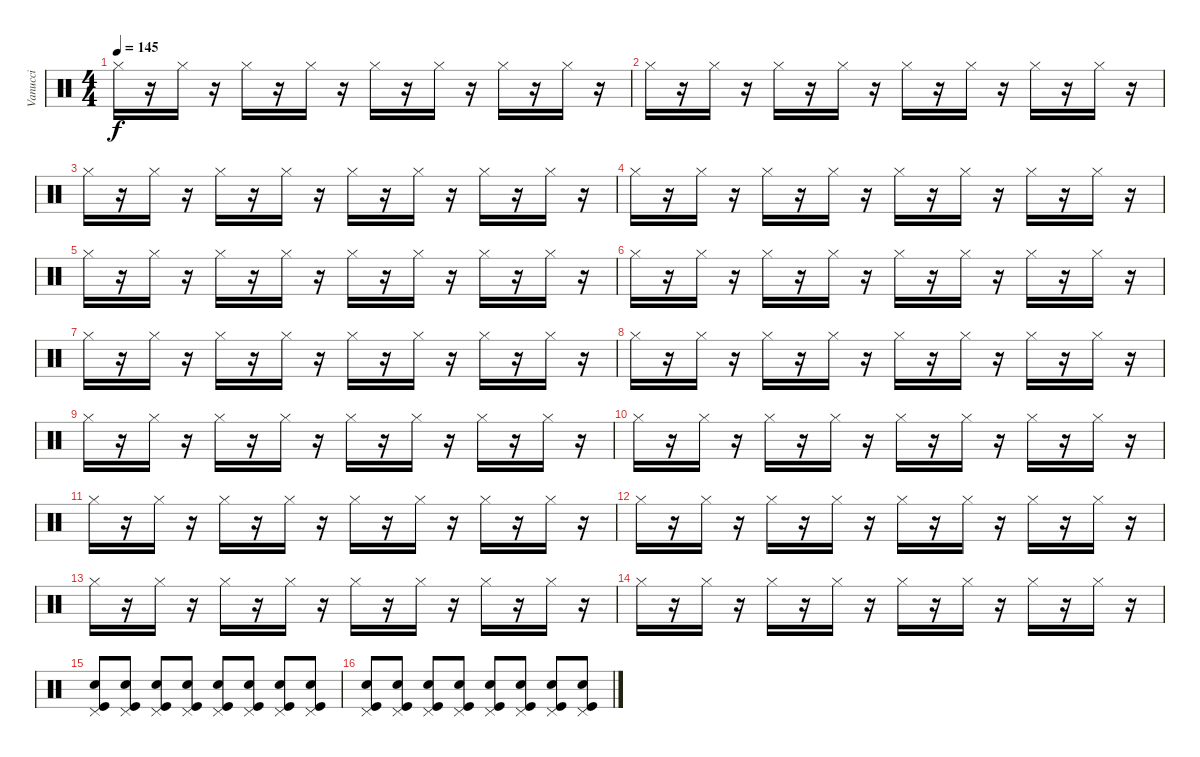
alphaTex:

\track ("Vanucci" "Vanucci") {instrument percussion}
\staff {score}
\articulation defaults
\ts (4 4)
\tempo 145
\clef neutral
\ks c "Hi-Hat (closed)".16{dy f}
r.16 "Hi-Hat (closed)".16 r.16 "Hi-Hat (closed)".16 r.16 "Hi-Hat (closed)".16 r.16 "Hi-Hat (closed)".16 r.16 "Hi-Hat (closed)".16 r.16 "Hi-Hat (closed)".16 r.16 "Hi-Hat (closed)".16 r.16 |
"Hi-Hat (closed)".16 r.16 "Hi-Hat (closed)".16 r.16 "Hi-Hat (closed)".16 r.16 "Hi-Hat (closed)".16 r.16 "Hi-Hat (closed)".16 r.16 "Hi-Hat (closed)".16 r.16 "Hi-Hat (closed)".16 r.16 "Hi-Hat (closed)".16 r.16 |
"Hi-Hat (closed)".16 r.16 "Hi-Hat (closed)".16 r.16 "Hi-Hat (closed)".16 r.16 "Hi-Hat (closed)".16 r.16 "Hi-Hat (closed)".16 r.16 "Hi-Hat (closed)".16 r.16 "Hi-Hat (closed)".16 r.16 "Hi-Hat (closed)".16 r.16 |
"Hi-Hat (closed)".16 r.16 "Hi-Hat (closed)".16 r.16 "Hi-Hat (closed)".16 r.16 "Hi-Hat (closed)".16 r.16 "Hi-Hat (closed)".16 r.16 "Hi-Hat (closed)".16 r.16 "Hi-Hat (closed)".16 r.16 "Hi-Hat (closed)".16 r.16 |
"Hi-Hat (closed)".16 r.16 "Hi-Hat (closed)".16 r.16 "Hi-Hat (closed)".16 r.16 "Hi-Hat (closed)".16 r.16 "Hi-Hat (closed)".16 r.16 "Hi-Hat (closed)".16 r.16 "Hi-Hat (closed)".16 r.16 "Hi-Hat (closed)".16 r.16 |
"Hi-Hat (closed)".16 r.16 "Hi-Hat (closed)".16 r.16 "Hi-Hat (closed)".16 r.16 "Hi-Hat (closed)".16 r.16 "Hi-Hat (closed)".16 r.16 "Hi-Hat (closed)".16 r.16 "Hi-Hat (closed)".16 r.16 "Hi-Hat (closed)".16 r.16 |
"Hi-Hat (closed)".16 r.16 "Hi-Hat (closed)".16 r.16 "Hi-Hat (closed)".16 r.16 "Hi-Hat (closed)".16 r.16 "Hi-Hat (closed)".16 r.16 "Hi-Hat (closed)".16 r.16 "Hi-Hat (closed)".16 r.16 "Hi-Hat (closed)".16 r.16 |
"Hi-Hat (closed)".16 r.16 "Hi-Hat (closed)".16 r.16 "Hi-Hat (closed)".16 r.16 "Hi-Hat (closed)".16 r.16 "Hi-Hat (closed)".16 r.16 "Hi-Hat (closed)".16 r.16 "Hi-Hat (closed)".16 r.16 "Hi-Hat (closed)".16 r.16 |
"Hi-Hat (closed)".16 r.16 "Hi-Hat (closed)".16 r.16 "Hi-Hat (closed)".16 r.16 "Hi-Hat (closed)".16 r.16 "Hi-Hat (closed)".16 r.16 "Hi-Hat (closed)".16 r.16 "Hi-Hat (closed)".16 r.16 "Hi-Hat (closed)".16 r.16 |
"Hi-Hat (closed)".16 r.16 "Hi-Hat (closed)".16 r.16 "Hi-Hat (closed)".16 r.16 "Hi-Hat (closed)".16 r.16 "Hi-Hat (closed)".16 r.16 "Hi-Hat (closed)".16 r.16 "Hi-Hat (closed)".16 r.16 "Hi-Hat (closed)".16 r.16 |
"Hi-Hat (closed)".16 r.16 "Hi-Hat (closed)".16 r.16 "Hi-Hat (closed)".16 r.16 "Hi-Hat (closed)".16 r.16 "Hi-Hat (closed)".16 r.16 "Hi-Hat (closed)".16 r.16 "Hi-Hat (closed)".16 r.16 "Hi-Hat (closed)".16 r.16 |
"Hi-Hat (closed)".16 r.16 "Hi-Hat (closed)".16 r.16 "Hi-Hat (closed)".16 r.16 "Hi-Hat (closed)".16 r.16 "Hi-Hat (closed)".16 r.16 "Hi-Hat (closed)".16 r.16 "Hi-Hat (closed)".16 r.16 "Hi-Hat (closed)".16 r.16 |
"Hi-Hat (closed)".16 r.16 "Hi-Hat (closed)".16 r.16 "Hi-Hat (closed)".16 r.16 "Hi-Hat (closed)".16 r.16 "Hi-Hat (closed)".16 r.16 "Hi-Hat (closed)".16 r.16 "Hi-Hat (closed)".16 r.16 "Hi-Hat (closed)".16 r.16 |
"Hi-Hat (closed)".16 r.16 "Hi-Hat (closed)".16 r.16 "Hi-Hat (closed)".16 r.16 "Hi-Hat (closed)".16 r.16 "Hi-Hat (closed)".16 r.16 "Hi-Hat (closed)".16 r.16 "Hi-Hat (closed)".16 r.16 "Hi-Hat (closed)".16 r.16 |
("Pedal Hi-Hat (hit)" "Electric Snare (hit)" "Kick (hit)").8 ("Pedal Hi-Hat (hit)" "Electric Snare (hit)" "Kick (hit)").8 ("Pedal Hi-Hat (hit)" "Electric Snare (hit)" "Kick (hit)").8 ("Pedal Hi-Hat (hit)" "Electric Snare (hit)" "Kick (hit)").8 ("Pedal Hi-Hat (hit)" "Electric Snare (hit)" "Kick (hit)").8 ("Pedal Hi-Hat (hit)" "Electric Snare (hit)" "Kick (hit)").8 ("Pedal Hi-Hat (hit)" "Electric Snare (hit)" "Kick (hit)").8 ("Pedal Hi-Hat (hit)" "Electric Snare (hit)" "Kick (hit)").8 |
("Pedal Hi-Hat (hit)" "Electric Snare (hit)" "Kick (hit)").8 ("Pedal Hi-Hat (hit)" "Electric Snare (hit)" "Kick (hit)").8 ("Pedal Hi-Hat (hit)" "Electric Snare (hit)" "Kick (hit)").8 ("Pedal Hi-Hat (hit)" "Electric Snare (hit)" "Kick (hit)").8 ("Pedal Hi-Hat (hit)" "Electric Snare (hit)" "Kick (hit)").8 ("Pedal Hi-Hat (hit)" "Electric Snare (hit)" "Kick (hit)").8 ("Pedal Hi-Hat (hit)" "Electric Snare (hit)" "Kick (hit)").8 ("Pedal Hi-Hat (hit)" "Electric Snare (hit)" "Kick (hit)").8
